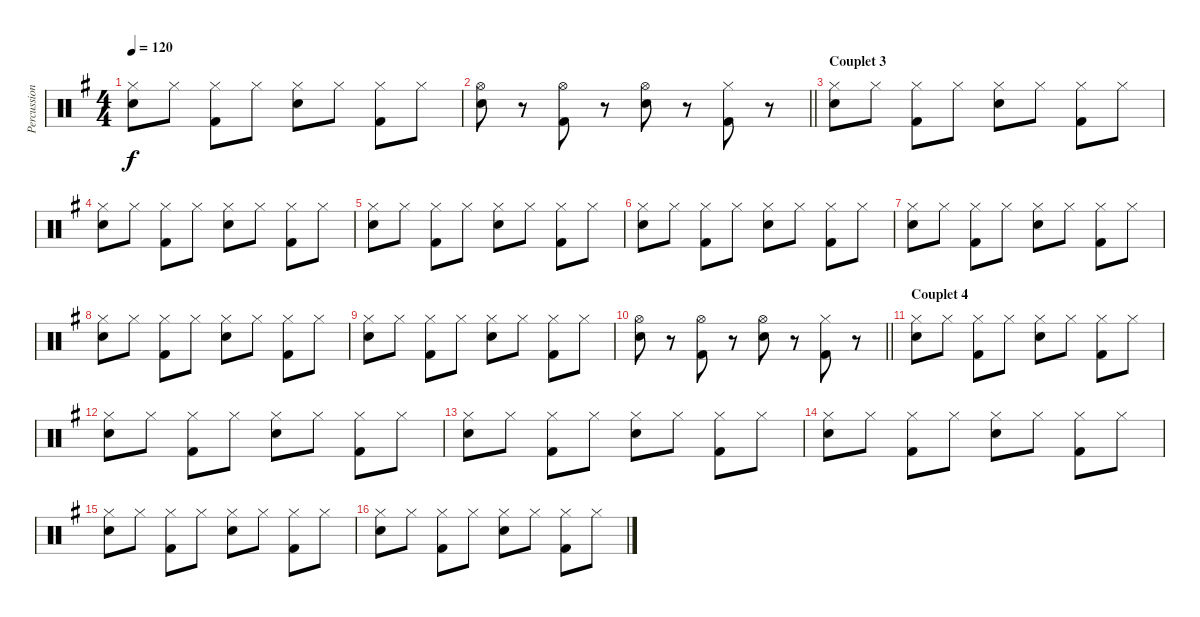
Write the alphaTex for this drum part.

\track ("Percussions" "Percussion") {instrument percussion}
\staff {score}
\articulation defaults
\ts (4 4)
\tempo 120
\clef neutral
\ks g
("Hi-Hat (closed)" "Snare (hit) 2").8{dy f} "Hi-Hat (closed)".8 ("Hi-Hat (closed)" "Kick (hit) 2").8 "Hi-Hat (closed)".8 ("Hi-Hat (closed)" "Snare (hit) 2").8 "Hi-Hat (closed)".8 ("Hi-Hat (closed)" "Kick (hit) 2").8 "Hi-Hat (closed)".8 |
\barLineRight lightlight
("Hi-Hat (open)" "Snare (hit) 2").8 r.8 ("Hi-Hat (open)" "Kick (hit) 2").8 r.8 ("Hi-Hat (open)" "Snare (hit) 2").8 r.8 ("Hi-Hat (closed)" "Kick (hit) 2").8 r.8 |
\section ("" "Couplet 3")
("Hi-Hat (closed)" "Snare (hit) 2").8 "Hi-Hat (closed)".8 ("Hi-Hat (closed)" "Kick (hit) 2").8 "Hi-Hat (closed)".8 ("Hi-Hat (closed)" "Snare (hit) 2").8 "Hi-Hat (closed)".8 ("Hi-Hat (closed)" "Kick (hit) 2").8 "Hi-Hat (closed)".8 |
("Hi-Hat (closed)" "Snare (hit) 2").8 "Hi-Hat (closed)".8 ("Hi-Hat (closed)" "Kick (hit) 2").8 "Hi-Hat (closed)".8 ("Hi-Hat (closed)" "Snare (hit) 2").8 "Hi-Hat (closed)".8 ("Hi-Hat (closed)" "Kick (hit) 2").8 "Hi-Hat (closed)".8 |
("Hi-Hat (closed)" "Snare (hit) 2").8 "Hi-Hat (closed)".8 ("Hi-Hat (closed)" "Kick (hit) 2").8 "Hi-Hat (closed)".8 ("Hi-Hat (closed)" "Snare (hit) 2").8 "Hi-Hat (closed)".8 ("Hi-Hat (closed)" "Kick (hit) 2").8 "Hi-Hat (closed)".8 |
("Hi-Hat (closed)" "Snare (hit) 2").8 "Hi-Hat (closed)".8 ("Hi-Hat (closed)" "Kick (hit) 2").8 "Hi-Hat (closed)".8 ("Hi-Hat (closed)" "Snare (hit) 2").8 "Hi-Hat (closed)".8 ("Hi-Hat (closed)" "Kick (hit) 2").8 "Hi-Hat (closed)".8 |
("Hi-Hat (closed)" "Snare (hit) 2").8 "Hi-Hat (closed)".8 ("Hi-Hat (closed)" "Kick (hit) 2").8 "Hi-Hat (closed)".8 ("Hi-Hat (closed)" "Snare (hit) 2").8 "Hi-Hat (closed)".8 ("Hi-Hat (closed)" "Kick (hit) 2").8 "Hi-Hat (closed)".8 |
("Hi-Hat (closed)" "Snare (hit) 2").8 "Hi-Hat (closed)".8 ("Hi-Hat (closed)" "Kick (hit) 2").8 "Hi-Hat (closed)".8 ("Hi-Hat (closed)" "Snare (hit) 2").8 "Hi-Hat (closed)".8 ("Hi-Hat (closed)" "Kick (hit) 2").8 "Hi-Hat (closed)".8 |
("Hi-Hat (closed)" "Snare (hit) 2").8 "Hi-Hat (closed)".8 ("Hi-Hat (closed)" "Kick (hit) 2").8 "Hi-Hat (closed)".8 ("Hi-Hat (closed)" "Snare (hit) 2").8 "Hi-Hat (closed)".8 ("Hi-Hat (closed)" "Kick (hit) 2").8 "Hi-Hat (closed)".8 |
\barLineRight lightlight
("Hi-Hat (open)" "Snare (hit) 2").8 r.8 ("Hi-Hat (open)" "Kick (hit) 2").8 r.8 ("Hi-Hat (open)" "Snare (hit) 2").8 r.8 ("Hi-Hat (closed)" "Kick (hit) 2").8 r.8 |
\section ("" "Couplet 4")
("Hi-Hat (closed)" "Snare (hit) 2").8 "Hi-Hat (closed)".8 ("Hi-Hat (closed)" "Kick (hit) 2").8 "Hi-Hat (closed)".8 ("Hi-Hat (closed)" "Snare (hit) 2").8 "Hi-Hat (closed)".8 ("Hi-Hat (closed)" "Kick (hit) 2").8 "Hi-Hat (closed)".8 |
("Hi-Hat (closed)" "Snare (hit) 2").8 "Hi-Hat (closed)".8 ("Hi-Hat (closed)" "Kick (hit) 2").8 "Hi-Hat (closed)".8 ("Hi-Hat (closed)" "Snare (hit) 2").8 "Hi-Hat (closed)".8 ("Hi-Hat (closed)" "Kick (hit) 2").8 "Hi-Hat (closed)".8 |
("Hi-Hat (closed)" "Snare (hit) 2").8 "Hi-Hat (closed)".8 ("Hi-Hat (closed)" "Kick (hit) 2").8 "Hi-Hat (closed)".8 ("Hi-Hat (closed)" "Snare (hit) 2").8 "Hi-Hat (closed)".8 ("Hi-Hat (closed)" "Kick (hit) 2").8 "Hi-Hat (closed)".8 |
("Hi-Hat (closed)" "Snare (hit) 2").8 "Hi-Hat (closed)".8 ("Hi-Hat (closed)" "Kick (hit) 2").8 "Hi-Hat (closed)".8 ("Hi-Hat (closed)" "Snare (hit) 2").8 "Hi-Hat (closed)".8 ("Hi-Hat (closed)" "Kick (hit) 2").8 "Hi-Hat (closed)".8 |
("Hi-Hat (closed)" "Snare (hit) 2").8 "Hi-Hat (closed)".8 ("Hi-Hat (closed)" "Kick (hit) 2").8 "Hi-Hat (closed)".8 ("Hi-Hat (closed)" "Snare (hit) 2").8 "Hi-Hat (closed)".8 ("Hi-Hat (closed)" "Kick (hit) 2").8 "Hi-Hat (closed)".8 |
("Hi-Hat (closed)" "Snare (hit) 2").8 "Hi-Hat (closed)".8 ("Hi-Hat (closed)" "Kick (hit) 2").8 "Hi-Hat (closed)".8 ("Hi-Hat (closed)" "Snare (hit) 2").8 "Hi-Hat (closed)".8 ("Hi-Hat (closed)" "Kick (hit) 2").8 "Hi-Hat (closed)".8
